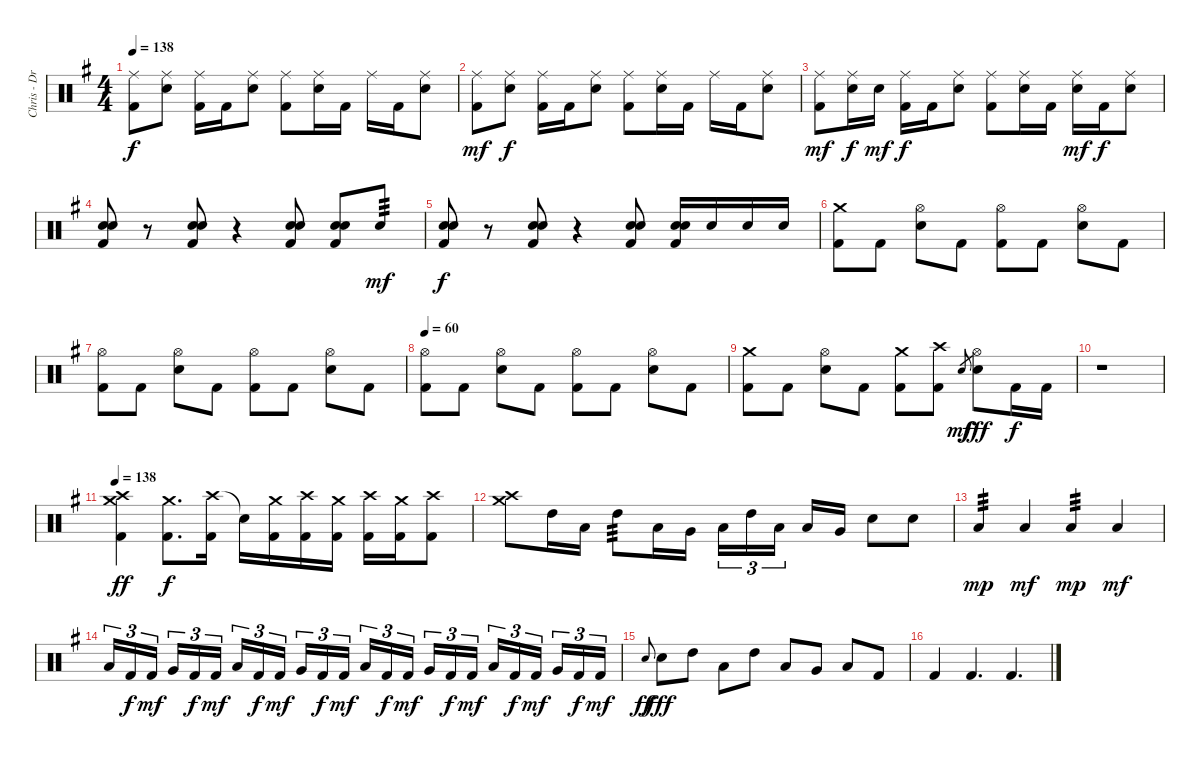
\track ("Chris - Drums" "Chris - Dr") {instrument percussion}
\staff {score}
\articulation defaults
\ts (4 4)
\tempo 138
\clef neutral
\ks g
("Ride (middle)" "Kick (hit) 2").8{dy f} ("Ride (middle)" "Electric Snare (hit)").8 ("Ride (middle)" "Kick (hit) 2").16 "Kick (hit) 2".16 ("Ride (middle)" "Electric Snare (hit)").8 ("Ride (middle)" "Kick (hit) 2").8 ("Ride (middle)" "Electric Snare (hit)").16 "Kick (hit) 2".16 "Ride (middle)".16 "Kick (hit) 2".16 ("Ride (middle)" "Electric Snare (hit)").8 |
("Ride (middle)" "Kick (hit) 2").8{dy mf} ("Ride (middle)" "Electric Snare (hit)").8{dy f} ("Ride (middle)" "Kick (hit) 2").16 "Kick (hit) 2".16 ("Ride (middle)" "Electric Snare (hit)").8 ("Ride (middle)" "Kick (hit) 2").8 ("Ride (middle)" "Electric Snare (hit)").16 "Kick (hit) 2".16 "Ride (middle)".16 "Kick (hit) 2".16 ("Ride (middle)" "Electric Snare (hit)").8 |
("Ride (middle)" "Kick (hit) 2").8{dy mf} ("Ride (middle)" "Electric Snare (hit)").16{dy f} "Electric Snare (hit)".16{dy mf} ("Ride (middle)" "Kick (hit) 2").16{dy f} "Kick (hit) 2".16 ("Ride (middle)" "Electric Snare (hit)").8 ("Ride (middle)" "Kick (hit) 2").8 ("Ride (middle)" "Electric Snare (hit)").16 "Kick (hit) 2".16 ("Ride (middle)" "Electric Snare (hit)").16{dy mf} "Kick (hit) 2".16{dy f} ("Ride (middle)" "Electric Snare (hit)").8 |
("Snare (hit) 2" "Electric Snare (hit)" "Kick (hit) 2").8 r.8 ("Snare (hit) 2" "Electric Snare (hit)" "Kick (hit) 2").8 r.4 ("Snare (hit) 2" "Electric Snare (hit)" "Kick (hit) 2").8 ("Snare (hit) 2" "Electric Snare (hit)" "Kick (hit) 2").8 "Electric Snare (hit)".8{tp 3 dy mf} |
("Snare (hit) 2" "Electric Snare (hit)" "Kick (hit) 2").8{dy f} r.8 ("Snare (hit) 2" "Electric Snare (hit)" "Kick (hit) 2").8 r.4 ("Snare (hit) 2" "Electric Snare (hit)" "Kick (hit) 2").8 ("Snare (hit) 2" "Electric Snare (hit)" "Kick (hit) 2").16 "Electric Snare (hit)".16 "Electric Snare (hit)".16 "Electric Snare (hit)".16 |
("Crash medium (hit)" "Kick (hit) 2").8 "Kick (hit) 2".8 ("Hi-Hat (open)" "Electric Snare (hit)").8 "Kick (hit) 2".8 ("Hi-Hat (open)" "Kick (hit) 2").8 "Kick (hit) 2".8 ("Hi-Hat (open)" "Electric Snare (hit)").8 "Kick (hit) 2".8 |
("Hi-Hat (open)" "Kick (hit) 2").8 "Kick (hit) 2".8 ("Hi-Hat (open)" "Electric Snare (hit)").8 "Kick (hit) 2".8 ("Hi-Hat (open)" "Kick (hit) 2").8 "Kick (hit) 2".8 ("Hi-Hat (open)" "Electric Snare (hit)").8 "Kick (hit) 2".8 |
\tempo 60
("Hi-Hat (open)" "Kick (hit) 2").8 "Kick (hit) 2".8 ("Hi-Hat (open)" "Electric Snare (hit)").8 "Kick (hit) 2".8 ("Hi-Hat (open)" "Kick (hit) 2").8 "Kick (hit) 2".8 ("Hi-Hat (open)" "Electric Snare (hit)").8 "Kick (hit) 2".8 |
("Crash medium (hit)" "Kick (hit) 2").8 "Kick (hit) 2".8 ("Hi-Hat (open)" "Electric Snare (hit)").8 "Kick (hit) 2".8 ("Crash medium (hit)" "Kick (hit) 2").8 ("Crash high (hit)" "Kick (hit) 2").8 "Electric Snare (hit)".8{gr dy mf} ("Hi-Hat (open)" "Electric Snare (hit)").8{dy fff} "Kick (hit) 2".16{dy f} "Kick (hit) 2".16 |
r.1 |
\tempo 138
("Crash high (hit)" "Crash medium (hit)" "Kick (hit) 2").4{dy ff} ("Crash medium (hit)" "Kick (hit) 2").8{d dy f} ("Crash high (hit)" "Kick (hit) 2").16 "Snare (hit)"{t}.16 ("Crash medium (hit)" "Kick (hit) 2").16 ("Crash high (hit)" "Kick (hit) 2").16 ("Crash medium (hit)" "Kick (hit) 2").16 ("Crash high (hit)" "Kick (hit) 2").16 ("Crash medium (hit)" "Kick (hit) 2").16 ("Crash high (hit)" "Kick (hit) 2").8 |
("Crash high (hit)" "Crash medium (hit)").8 "High Tom (hit)".16 "Low Tom (hit)".16 "High Tom (hit)".8{tp 3} "Low Tom (hit)".16 "Very Low Tom (hit)".16 "Low Tom (hit)".16{tu (3 2)} "High Tom (hit)".16{tu (3 2)} "Low Tom (hit)".16{tu (3 2) beam splitsecondary} "Low Tom (hit)".16 "Very Low Tom (hit)".16 "Electric Snare (hit)".8 "Electric Snare (hit)".8 |
"Low Tom (hit)".4{tp 3 dy mp} "Low Tom (hit)".4{dy mf} "Low Floor Tom (hit)".4{tp 3 dy mp} "Low Floor Tom (hit)".4{dy mf} |
"Low Floor Tom (hit)".16{tu (3 2)} "Kick (hit) 2".16{tu (3 2) dy f} "Kick (hit) 2".16{tu (3 2) dy mf beam splitsecondary} "Very Low Tom (hit)".16{tu (3 2)} "Kick (hit) 2".16{tu (3 2) dy f} "Kick (hit) 2".16{tu (3 2) dy mf} "Low Floor Tom (hit)".16{tu (3 2)} "Kick (hit) 2".16{tu (3 2) dy f} "Kick (hit) 2".16{tu (3 2) dy mf beam splitsecondary} "Very Low Tom (hit)".16{tu (3 2)} "Kick (hit) 2".16{tu (3 2) dy f} "Kick (hit) 2".16{tu (3 2) dy mf} "Low Floor Tom (hit)".16{tu (3 2)} "Kick (hit) 2".16{tu (3 2) dy f} "Kick (hit) 2".16{tu (3 2) dy mf beam splitsecondary} "Very Low Tom (hit)".16{tu (3 2)} "Kick (hit) 2".16{tu (3 2) dy f} "Kick (hit) 2".16{tu (3 2) dy mf} "Low Floor Tom (hit)".16{tu (3 2)} "Kick (hit) 2".16{tu (3 2) dy f} "Kick (hit) 2".16{tu (3 2) dy mf beam splitsecondary} "Very Low Tom (hit)".16{tu (3 2)} "Kick (hit) 2".16{tu (3 2) dy f} "Kick (hit) 2".16{tu (3 2) dy mf} |
"Electric Snare (hit)".8{gr onbeat dy ff} "Electric Snare (hit)".8{dy fff} "High Tom (hit)".8 "Low Tom (hit)".8 "High Tom (hit)".8 "Low Tom (hit)".8 "Very Low Tom (hit)".8 "Low Floor Tom (hit)".8 "Kick (hit) 2".8 |
"Kick (hit) 2".4 "Kick (hit) 2".4{d} "Kick (hit) 2".4{d}
